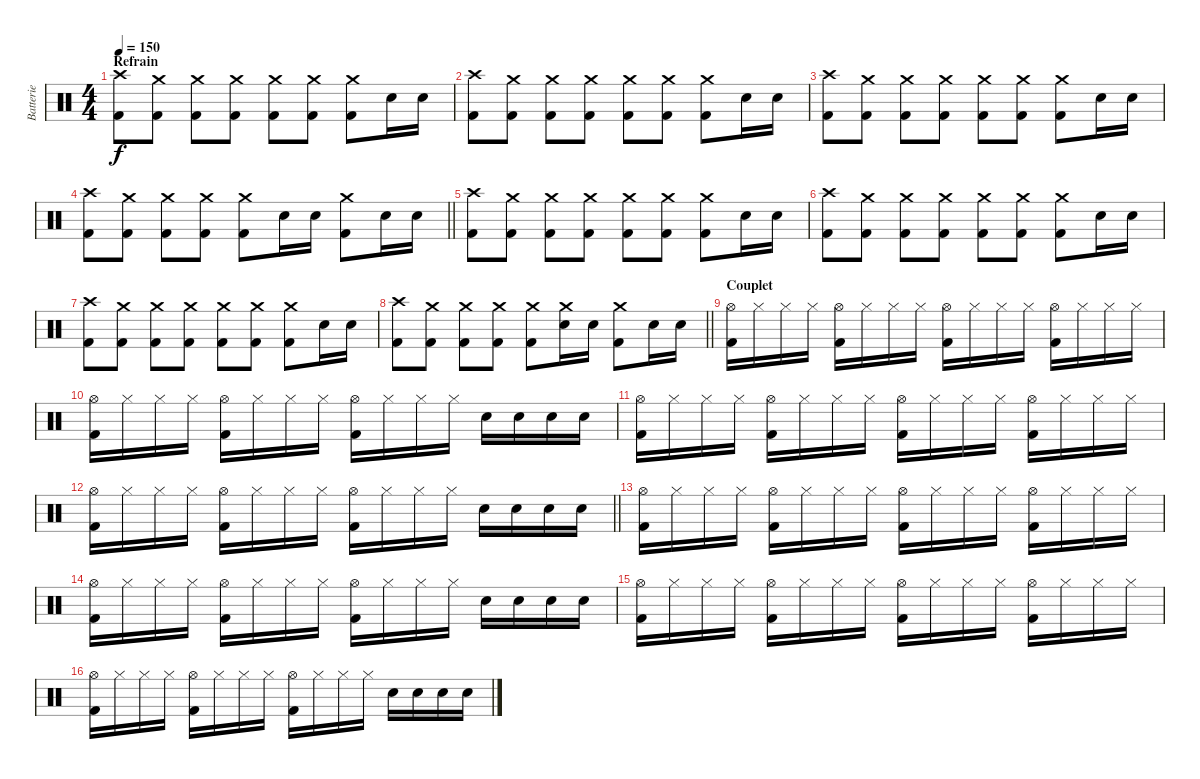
\track ("Batterie" "Batterie") {instrument percussion}
\staff {score}
\articulation defaults
\ts (4 4)
\section ("" "Refrain")
\tempo 150
\clef neutral
\ks c
("Crash high (hit)" "Kick (hit) 2").8{dy f} ("Crash medium (hit)" "Kick (hit) 2").8 ("Crash medium (hit)" "Kick (hit) 2").8 ("Crash medium (hit)" "Kick (hit) 2").8 ("Crash medium (hit)" "Kick (hit) 2").8 ("Crash medium (hit)" "Kick (hit) 2").8 ("Crash medium (hit)" "Kick (hit) 2").8 "Electric Snare (hit)".16 "Electric Snare (hit)".16 |
("Crash high (hit)" "Kick (hit) 2").8 ("Crash medium (hit)" "Kick (hit) 2").8 ("Crash medium (hit)" "Kick (hit) 2").8 ("Crash medium (hit)" "Kick (hit) 2").8 ("Crash medium (hit)" "Kick (hit) 2").8 ("Crash medium (hit)" "Kick (hit) 2").8 ("Crash medium (hit)" "Kick (hit) 2").8 "Electric Snare (hit)".16 "Electric Snare (hit)".16 |
("Crash high (hit)" "Kick (hit) 2").8 ("Crash medium (hit)" "Kick (hit) 2").8 ("Crash medium (hit)" "Kick (hit) 2").8 ("Crash medium (hit)" "Kick (hit) 2").8 ("Crash medium (hit)" "Kick (hit) 2").8 ("Crash medium (hit)" "Kick (hit) 2").8 ("Crash medium (hit)" "Kick (hit) 2").8 "Electric Snare (hit)".16 "Electric Snare (hit)".16 |
\barLineRight lightlight
("Crash high (hit)" "Kick (hit) 2").8 ("Crash medium (hit)" "Kick (hit) 2").8 ("Crash medium (hit)" "Kick (hit) 2").8 ("Crash medium (hit)" "Kick (hit) 2").8 ("Crash medium (hit)" "Kick (hit) 2").8 "Electric Snare (hit)".16 "Electric Snare (hit)".16 ("Crash medium (hit)" "Kick (hit) 2").8 "Electric Snare (hit)".16 "Electric Snare (hit)".16 |
("Crash high (hit)" "Kick (hit) 2").8 ("Crash medium (hit)" "Kick (hit) 2").8 ("Crash medium (hit)" "Kick (hit) 2").8 ("Crash medium (hit)" "Kick (hit) 2").8 ("Crash medium (hit)" "Kick (hit) 2").8 ("Crash medium (hit)" "Kick (hit) 2").8 ("Crash medium (hit)" "Kick (hit) 2").8 "Electric Snare (hit)".16 "Electric Snare (hit)".16 |
("Crash high (hit)" "Kick (hit) 2").8 ("Crash medium (hit)" "Kick (hit) 2").8 ("Crash medium (hit)" "Kick (hit) 2").8 ("Crash medium (hit)" "Kick (hit) 2").8 ("Crash medium (hit)" "Kick (hit) 2").8 ("Crash medium (hit)" "Kick (hit) 2").8 ("Crash medium (hit)" "Kick (hit) 2").8 "Electric Snare (hit)".16 "Electric Snare (hit)".16 |
("Crash high (hit)" "Kick (hit) 2").8 ("Crash medium (hit)" "Kick (hit) 2").8 ("Crash medium (hit)" "Kick (hit) 2").8 ("Crash medium (hit)" "Kick (hit) 2").8 ("Crash medium (hit)" "Kick (hit) 2").8 ("Crash medium (hit)" "Kick (hit) 2").8 ("Crash medium (hit)" "Kick (hit) 2").8 "Electric Snare (hit)".16 "Electric Snare (hit)".16 |
\barLineRight lightlight
("Crash high (hit)" "Kick (hit) 2").8 ("Crash medium (hit)" "Kick (hit) 2").8 ("Crash medium (hit)" "Kick (hit) 2").8 ("Crash medium (hit)" "Kick (hit) 2").8 ("Crash medium (hit)" "Kick (hit) 2").8 ("Crash medium (hit)" "Electric Snare (hit)").16 "Electric Snare (hit)".16 ("Crash medium (hit)" "Kick (hit) 2").8 "Electric Snare (hit)".16 "Electric Snare (hit)".16 |
\section ("" "Couplet")
("Hi-Hat (open)" "Kick (hit) 2").16 "Hi-Hat (closed)".16 "Hi-Hat (closed)".16 "Hi-Hat (closed)".16 ("Hi-Hat (open)" "Kick (hit) 2").16 "Hi-Hat (closed)".16 "Hi-Hat (closed)".16 "Hi-Hat (closed)".16 ("Hi-Hat (open)" "Kick (hit) 2").16 "Hi-Hat (closed)".16 "Hi-Hat (closed)".16 "Hi-Hat (closed)".16 ("Hi-Hat (open)" "Kick (hit) 2").16 "Hi-Hat (closed)".16 "Hi-Hat (closed)".16 "Hi-Hat (closed)".16 |
("Hi-Hat (open)" "Kick (hit) 2").16 "Hi-Hat (closed)".16 "Hi-Hat (closed)".16 "Hi-Hat (closed)".16 ("Hi-Hat (open)" "Kick (hit) 2").16 "Hi-Hat (closed)".16 "Hi-Hat (closed)".16 "Hi-Hat (closed)".16 ("Hi-Hat (open)" "Kick (hit) 2").16 "Hi-Hat (closed)".16 "Hi-Hat (closed)".16 "Hi-Hat (closed)".16 "Electric Snare (hit)".16 "Electric Snare (hit)".16 "Electric Snare (hit)".16 "Electric Snare (hit)".16 |
("Hi-Hat (open)" "Kick (hit) 2").16 "Hi-Hat (closed)".16 "Hi-Hat (closed)".16 "Hi-Hat (closed)".16 ("Hi-Hat (open)" "Kick (hit) 2").16 "Hi-Hat (closed)".16 "Hi-Hat (closed)".16 "Hi-Hat (closed)".16 ("Hi-Hat (open)" "Kick (hit) 2").16 "Hi-Hat (closed)".16 "Hi-Hat (closed)".16 "Hi-Hat (closed)".16 ("Hi-Hat (open)" "Kick (hit) 2").16 "Hi-Hat (closed)".16 "Hi-Hat (closed)".16 "Hi-Hat (closed)".16 |
\barLineRight lightlight
("Hi-Hat (open)" "Kick (hit) 2").16 "Hi-Hat (closed)".16 "Hi-Hat (closed)".16 "Hi-Hat (closed)".16 ("Hi-Hat (open)" "Kick (hit) 2").16 "Hi-Hat (closed)".16 "Hi-Hat (closed)".16 "Hi-Hat (closed)".16 ("Hi-Hat (open)" "Kick (hit) 2").16 "Hi-Hat (closed)".16 "Hi-Hat (closed)".16 "Hi-Hat (closed)".16 "Electric Snare (hit)".16 "Electric Snare (hit)".16 "Electric Snare (hit)".16 "Electric Snare (hit)".16 |
("Hi-Hat (open)" "Kick (hit) 2").16 "Hi-Hat (closed)".16 "Hi-Hat (closed)".16 "Hi-Hat (closed)".16 ("Hi-Hat (open)" "Kick (hit) 2").16 "Hi-Hat (closed)".16 "Hi-Hat (closed)".16 "Hi-Hat (closed)".16 ("Hi-Hat (open)" "Kick (hit) 2").16 "Hi-Hat (closed)".16 "Hi-Hat (closed)".16 "Hi-Hat (closed)".16 ("Hi-Hat (open)" "Kick (hit) 2").16 "Hi-Hat (closed)".16 "Hi-Hat (closed)".16 "Hi-Hat (closed)".16 |
("Hi-Hat (open)" "Kick (hit) 2").16 "Hi-Hat (closed)".16 "Hi-Hat (closed)".16 "Hi-Hat (closed)".16 ("Hi-Hat (open)" "Kick (hit) 2").16 "Hi-Hat (closed)".16 "Hi-Hat (closed)".16 "Hi-Hat (closed)".16 ("Hi-Hat (open)" "Kick (hit) 2").16 "Hi-Hat (closed)".16 "Hi-Hat (closed)".16 "Hi-Hat (closed)".16 "Electric Snare (hit)".16 "Electric Snare (hit)".16 "Electric Snare (hit)".16 "Electric Snare (hit)".16 |
("Hi-Hat (open)" "Kick (hit) 2").16 "Hi-Hat (closed)".16 "Hi-Hat (closed)".16 "Hi-Hat (closed)".16 ("Hi-Hat (open)" "Kick (hit) 2").16 "Hi-Hat (closed)".16 "Hi-Hat (closed)".16 "Hi-Hat (closed)".16 ("Hi-Hat (open)" "Kick (hit) 2").16 "Hi-Hat (closed)".16 "Hi-Hat (closed)".16 "Hi-Hat (closed)".16 ("Hi-Hat (open)" "Kick (hit) 2").16 "Hi-Hat (closed)".16 "Hi-Hat (closed)".16 "Hi-Hat (closed)".16 |
("Hi-Hat (open)" "Kick (hit) 2").16 "Hi-Hat (closed)".16 "Hi-Hat (closed)".16 "Hi-Hat (closed)".16 ("Hi-Hat (open)" "Kick (hit) 2").16 "Hi-Hat (closed)".16 "Hi-Hat (closed)".16 "Hi-Hat (closed)".16 ("Hi-Hat (open)" "Kick (hit) 2").16 "Hi-Hat (closed)".16 "Hi-Hat (closed)".16 "Hi-Hat (closed)".16 "Electric Snare (hit)".16 "Electric Snare (hit)".16 "Electric Snare (hit)".16 "Electric Snare (hit)".16
